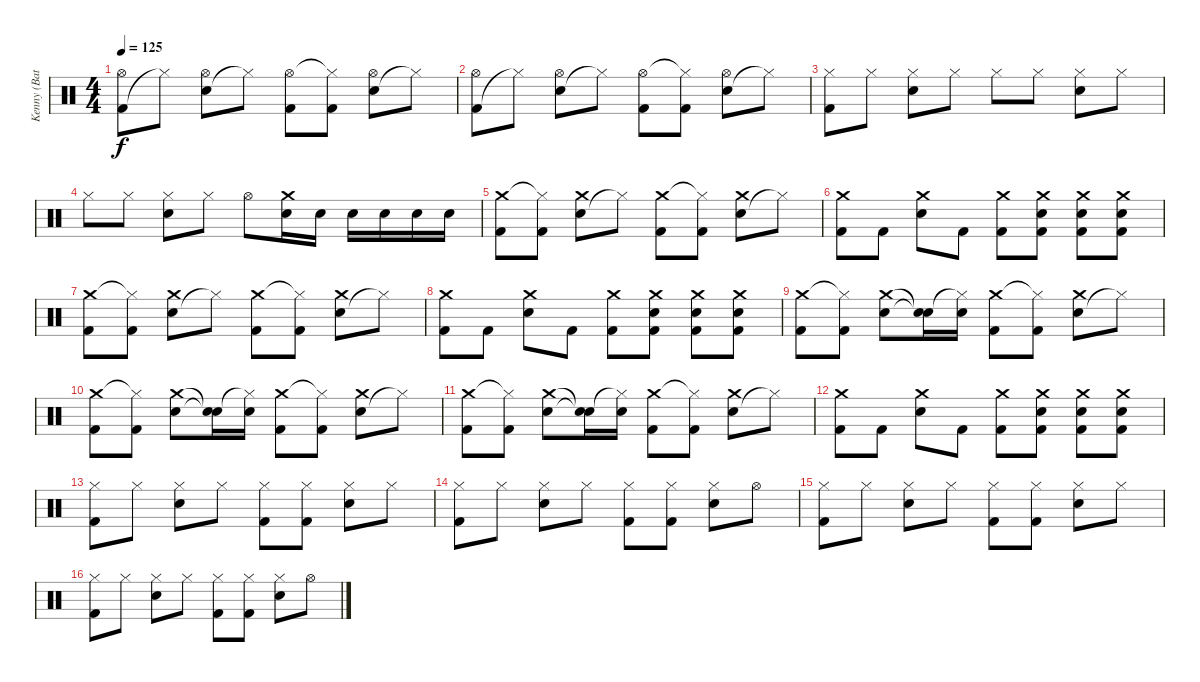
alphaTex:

\track ("Kenny (Batterie)" "Kenny (Bat") {instrument percussion}
\staff {score}
\articulation defaults
\ts (4 4)
\tempo 125
\clef neutral
\ks c
("Kick (hit) 2" "Hi-Hat (open)").8{dy f} "Hi-Hat (closed)"{t}.8 ("Electric Snare (hit)" "Hi-Hat (open)").8 "Hi-Hat (closed)"{t}.8 ("Kick (hit) 2" "Hi-Hat (open)").8 ("Kick (hit) 2" "Hi-Hat (closed)"{t}).8 ("Electric Snare (hit)" "Hi-Hat (open)").8 "Hi-Hat (closed)"{t}.8 |
("Kick (hit) 2" "Hi-Hat (open)").8 "Hi-Hat (closed)"{t}.8 ("Electric Snare (hit)" "Hi-Hat (open)").8 "Hi-Hat (closed)"{t}.8 ("Kick (hit) 2" "Hi-Hat (open)").8 ("Kick (hit) 2" "Hi-Hat (closed)"{t}).8 ("Electric Snare (hit)" "Hi-Hat (open)").8 "Hi-Hat (closed)"{t}.8 |
("Kick (hit) 2" "Hi-Hat (closed)").8 "Hi-Hat (closed)".8 ("Electric Snare (hit)" "Hi-Hat (closed)").8 "Hi-Hat (closed)".8 "Hi-Hat (closed)".8 "Hi-Hat (closed)".8 ("Electric Snare (hit)" "Hi-Hat (closed)").8 "Hi-Hat (closed)".8 |
"Hi-Hat (closed)".8 "Hi-Hat (closed)".8 ("Electric Snare (hit)" "Hi-Hat (closed)").8 "Hi-Hat (closed)".8 "Hi-Hat (open)".8 ("Electric Snare (hit)" "Crash medium (hit)").16 "Electric Snare (hit)".16 "Electric Snare (hit)".16 "Electric Snare (hit)".16 "Electric Snare (hit)".16 "Electric Snare (hit)".16 |
("Kick (hit) 2" "Crash medium (hit)").8 ("Kick (hit) 2" "Hi-Hat (closed)"{t}).8 ("Electric Snare (hit)" "Crash medium (hit)").8 "Hi-Hat (closed)"{t}.8 ("Kick (hit) 2" "Crash medium (hit)").8 ("Kick (hit) 2" "Hi-Hat (closed)"{t}).8 ("Electric Snare (hit)" "Crash medium (hit)").8 "Hi-Hat (closed)"{t}.8 |
("Kick (hit) 2" "Crash medium (hit)").8 "Kick (hit) 2".8 ("Electric Snare (hit)" "Crash medium (hit)").8 "Kick (hit) 2".8 ("Kick (hit) 2" "Crash medium (hit)").8 ("Kick (hit) 2" "Electric Snare (hit)" "Crash medium (hit)").8 ("Kick (hit) 2" "Electric Snare (hit)" "Crash medium (hit)").8 ("Kick (hit) 2" "Electric Snare (hit)" "Crash medium (hit)").8 |
("Kick (hit) 2" "Crash medium (hit)").8 ("Kick (hit) 2" "Hi-Hat (closed)"{t}).8 ("Electric Snare (hit)" "Crash medium (hit)").8 "Hi-Hat (closed)"{t}.8 ("Kick (hit) 2" "Crash medium (hit)").8 ("Kick (hit) 2" "Hi-Hat (closed)"{t}).8 ("Electric Snare (hit)" "Crash medium (hit)").8 "Hi-Hat (closed)"{t}.8 |
("Kick (hit) 2" "Crash medium (hit)").8 "Kick (hit) 2".8 ("Electric Snare (hit)" "Crash medium (hit)").8 "Kick (hit) 2".8 ("Kick (hit) 2" "Crash medium (hit)").8 ("Kick (hit) 2" "Electric Snare (hit)" "Crash medium (hit)").8 ("Kick (hit) 2" "Electric Snare (hit)" "Crash medium (hit)").8 ("Kick (hit) 2" "Electric Snare (hit)" "Crash medium (hit)").8 |
("Kick (hit) 2" "Crash medium (hit)").8 ("Kick (hit) 2" "Hi-Hat (closed)"{t}).8 ("Electric Snare (hit)" "Crash medium (hit)").8 ("Snare (hit)"{t} "Snare (hit)"{t}).16 ("Electric Snare (hit)" "Hi-Hat (closed)"{t}).16 ("Kick (hit) 2" "Crash medium (hit)").8 ("Kick (hit) 2" "Hi-Hat (closed)"{t}).8 ("Electric Snare (hit)" "Crash medium (hit)").8 "Hi-Hat (closed)"{t}.8 |
("Kick (hit) 2" "Crash medium (hit)").8 ("Kick (hit) 2" "Hi-Hat (closed)"{t}).8 ("Electric Snare (hit)" "Crash medium (hit)").8 ("Snare (hit)"{t} "Snare (hit)"{t}).16 ("Electric Snare (hit)" "Hi-Hat (closed)"{t}).16 ("Kick (hit) 2" "Crash medium (hit)").8 ("Kick (hit) 2" "Hi-Hat (closed)"{t}).8 ("Electric Snare (hit)" "Crash medium (hit)").8 "Hi-Hat (closed)"{t}.8 |
("Kick (hit) 2" "Crash medium (hit)").8 ("Kick (hit) 2" "Hi-Hat (closed)"{t}).8 ("Electric Snare (hit)" "Crash medium (hit)").8 ("Snare (hit)"{t} "Snare (hit)"{t}).16 ("Electric Snare (hit)" "Hi-Hat (closed)"{t}).16 ("Kick (hit) 2" "Crash medium (hit)").8 ("Kick (hit) 2" "Hi-Hat (closed)"{t}).8 ("Electric Snare (hit)" "Crash medium (hit)").8 "Hi-Hat (closed)"{t}.8 |
("Kick (hit) 2" "Crash medium (hit)").8 "Kick (hit) 2".8 ("Electric Snare (hit)" "Crash medium (hit)").8 "Kick (hit) 2".8 ("Kick (hit) 2" "Crash medium (hit)").8 ("Kick (hit) 2" "Electric Snare (hit)" "Crash medium (hit)").8 ("Kick (hit) 2" "Electric Snare (hit)" "Crash medium (hit)").8 ("Kick (hit) 2" "Electric Snare (hit)" "Crash medium (hit)").8 |
("Kick (hit) 2" "Hi-Hat (closed)").8 "Hi-Hat (closed)".8 ("Electric Snare (hit)" "Hi-Hat (closed)").8 "Hi-Hat (closed)".8 ("Kick (hit) 2" "Hi-Hat (closed)").8 ("Kick (hit) 2" "Hi-Hat (closed)").8 ("Electric Snare (hit)" "Hi-Hat (closed)").8 "Hi-Hat (closed)".8 |
("Kick (hit) 2" "Hi-Hat (closed)").8 "Hi-Hat (closed)".8 ("Electric Snare (hit)" "Hi-Hat (closed)").8 "Hi-Hat (closed)".8 ("Kick (hit) 2" "Hi-Hat (closed)").8 ("Kick (hit) 2" "Hi-Hat (closed)").8 ("Electric Snare (hit)" "Hi-Hat (closed)").8 "Hi-Hat (open)".8 |
("Kick (hit) 2" "Hi-Hat (closed)").8 "Hi-Hat (closed)".8 ("Electric Snare (hit)" "Hi-Hat (closed)").8 "Hi-Hat (closed)".8 ("Kick (hit) 2" "Hi-Hat (closed)").8 ("Kick (hit) 2" "Hi-Hat (closed)").8 ("Electric Snare (hit)" "Hi-Hat (closed)").8 "Hi-Hat (closed)".8 |
("Kick (hit) 2" "Hi-Hat (closed)").8 "Hi-Hat (closed)".8 ("Electric Snare (hit)" "Hi-Hat (closed)").8 "Hi-Hat (closed)".8 ("Kick (hit) 2" "Hi-Hat (closed)").8 ("Kick (hit) 2" "Hi-Hat (closed)").8 ("Electric Snare (hit)" "Hi-Hat (closed)").8 "Hi-Hat (open)".8
